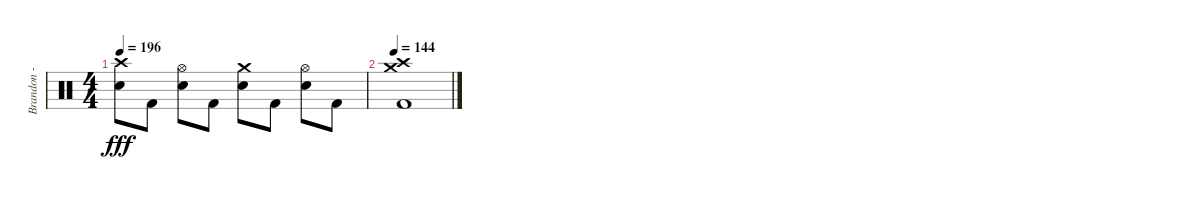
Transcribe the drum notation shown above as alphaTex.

\track ("Brandon - Drums" "Brandon - ") {instrument percussion}
\staff {score}
\articulation defaults
\ts (4 4)
\tempo 196
\clef neutral
\ks c
("Crash high (hit)" "Snare (hit) 2").8{dy fff} "Kick (hit) 2".8 ("Hi-Hat (open)" "Snare (hit) 2").8 "Kick (hit) 2".8 ("Crash medium (hit)" "Snare (hit) 2").8 "Kick (hit) 2".8 ("Hi-Hat (open)" "Snare (hit) 2").8 "Kick (hit) 2".8 |
\tempo 144
("Crash medium (hit)" "Crash high (hit)" "Kick (hit) 2").1
